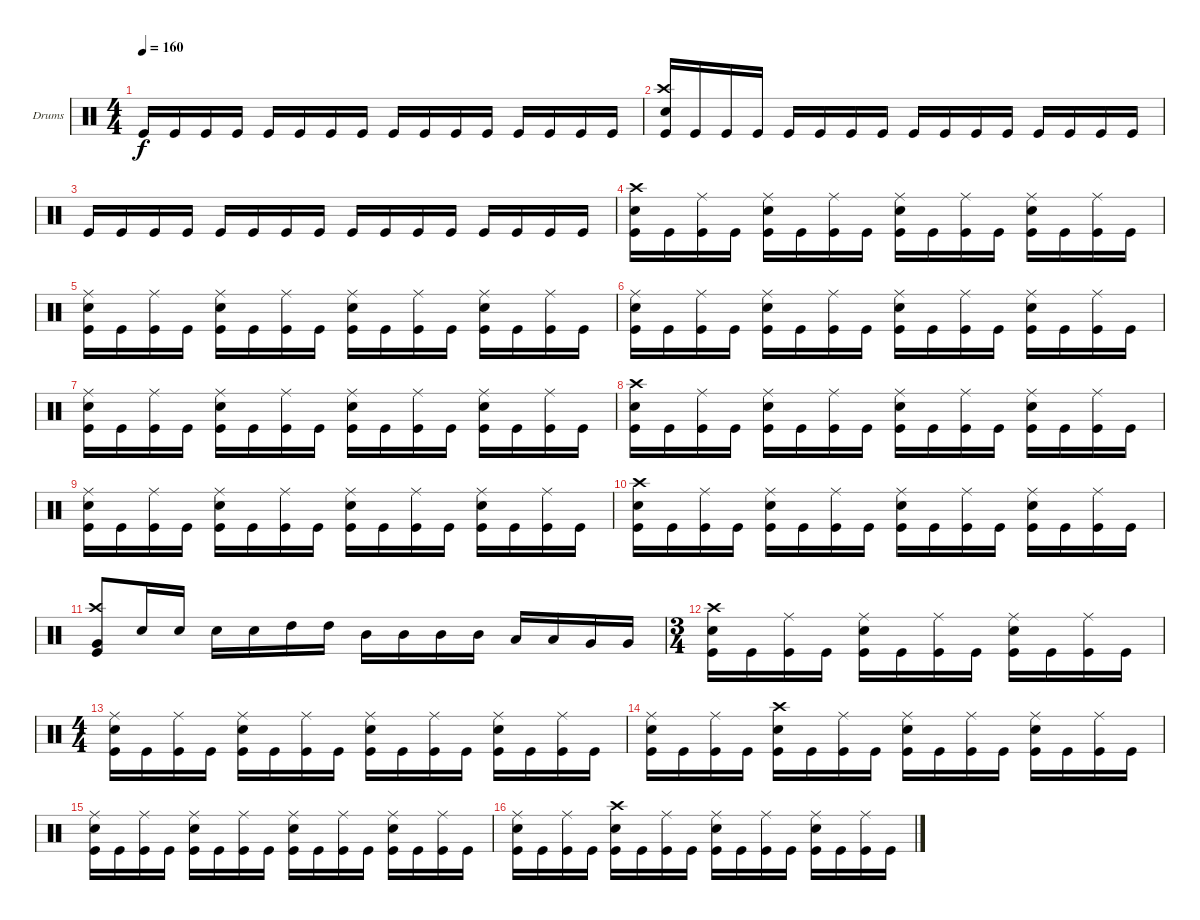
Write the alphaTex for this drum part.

\defaultSystemsLayout 4
\bracketExtendMode groupsimilarinstruments
\firstSystemTrackNameOrientation horizontal
\otherSystemsTrackNameOrientation horizontal
\track ("Drumkit" "Drums") {instrument percussion}
\staff {score}
\articulation defaults
\ts (4 4)
\tempo 160
\clef neutral
\ks c "Kick (hit)".16{dy f} "Kick (hit)".16 "Kick (hit)".16 "Kick (hit)".16 "Kick (hit)".16 "Kick (hit)".16 "Kick (hit)".16 "Kick (hit)".16 "Kick (hit)".16 "Kick (hit)".16 "Kick (hit)".16 "Kick (hit)".16 "Kick (hit)".16 "Kick (hit)".16 "Kick (hit)".16 "Kick (hit)".16
|
("Crash high (hit)" "Snare (hit) 2" "Kick (hit)").16 "Kick (hit)".16 "Kick (hit)".16 "Kick (hit)".16 "Kick (hit)".16 "Kick (hit)".16 "Kick (hit)".16 "Kick (hit)".16 "Kick (hit)".16 "Kick (hit)".16 "Kick (hit)".16 "Kick (hit)".16 "Kick (hit)".16 "Kick (hit)".16 "Kick (hit)".16 "Kick (hit)".16 |
"Kick (hit)".16 "Kick (hit)".16 "Kick (hit)".16 "Kick (hit)".16 "Kick (hit)".16 "Kick (hit)".16 "Kick (hit)".16 "Kick (hit)".16 "Kick (hit)".16 "Kick (hit)".16 "Kick (hit)".16 "Kick (hit)".16 "Kick (hit)".16 "Kick (hit)".16 "Kick (hit)".16 "Kick (hit)".16 |
("Crash high (hit)" "Snare (hit) 2" "Kick (hit)").16 "Kick (hit)".16 ("Ride (middle)" "Kick (hit)").16 "Kick (hit)".16 ("Snare (hit) 2" "Ride (middle)" "Kick (hit)").16 "Kick (hit)".16 ("Ride (middle)" "Kick (hit)").16 "Kick (hit)".16 ("Snare (hit) 2" "Ride (middle)" "Kick (hit)").16 "Kick (hit)".16 ("Ride (middle)" "Kick (hit)").16 "Kick (hit)".16 ("Snare (hit) 2" "Ride (middle)" "Kick (hit)").16 "Kick (hit)".16 ("Ride (middle)" "Kick (hit)").16 "Kick (hit)".16 |
("Snare (hit) 2" "Ride (middle)" "Kick (hit)").16 "Kick (hit)".16 ("Ride (middle)" "Kick (hit)").16 "Kick (hit)".16 ("Snare (hit) 2" "Ride (middle)" "Kick (hit)").16 "Kick (hit)".16 ("Ride (middle)" "Kick (hit)").16 "Kick (hit)".16 ("Snare (hit) 2" "Ride (middle)" "Kick (hit)").16 "Kick (hit)".16 ("Ride (middle)" "Kick (hit)").16 "Kick (hit)".16 ("Snare (hit) 2" "Ride (middle)" "Kick (hit)").16 "Kick (hit)".16 ("Ride (middle)" "Kick (hit)").16 "Kick (hit)".16 |
("Snare (hit) 2" "Ride (middle)" "Kick (hit)").16 "Kick (hit)".16 ("Ride (middle)" "Kick (hit)").16 "Kick (hit)".16 ("Snare (hit) 2" "Ride (middle)" "Kick (hit)").16 "Kick (hit)".16 ("Ride (middle)" "Kick (hit)").16 "Kick (hit)".16 ("Snare (hit) 2" "Ride (middle)" "Kick (hit)").16 "Kick (hit)".16 ("Ride (middle)" "Kick (hit)").16 "Kick (hit)".16 ("Snare (hit) 2" "Ride (middle)" "Kick (hit)").16 "Kick (hit)".16 ("Ride (middle)" "Kick (hit)").16 "Kick (hit)".16 |
("Ride (middle)" "Snare (hit) 2" "Kick (hit)").16 "Kick (hit)".16 ("Ride (middle)" "Kick (hit)").16 "Kick (hit)".16 ("Snare (hit) 2" "Ride (middle)" "Kick (hit)").16 "Kick (hit)".16 ("Ride (middle)" "Kick (hit)").16 "Kick (hit)".16 ("Snare (hit) 2" "Ride (middle)" "Kick (hit)").16 "Kick (hit)".16 ("Ride (middle)" "Kick (hit)").16 "Kick (hit)".16 ("Snare (hit) 2" "Ride (middle)" "Kick (hit)").16 "Kick (hit)".16 ("Ride (middle)" "Kick (hit)").16 "Kick (hit)".16 |
("Snare (hit) 2" "Kick (hit)" "Crash high (hit)").16 "Kick (hit)".16 ("Ride (middle)" "Kick (hit)").16 "Kick (hit)".16 ("Snare (hit) 2" "Ride (middle)" "Kick (hit)").16 "Kick (hit)".16 ("Ride (middle)" "Kick (hit)").16 "Kick (hit)".16 ("Snare (hit) 2" "Ride (middle)" "Kick (hit)").16 "Kick (hit)".16 ("Ride (middle)" "Kick (hit)").16 "Kick (hit)".16 ("Snare (hit) 2" "Ride (middle)" "Kick (hit)").16 "Kick (hit)".16 ("Ride (middle)" "Kick (hit)").16 "Kick (hit)".16 |
("Snare (hit) 2" "Kick (hit)" "Ride (middle)").16 "Kick (hit)".16 ("Ride (middle)" "Kick (hit)").16 "Kick (hit)".16 ("Snare (hit) 2" "Ride (middle)" "Kick (hit)").16 "Kick (hit)".16 ("Ride (middle)" "Kick (hit)").16 "Kick (hit)".16 ("Snare (hit) 2" "Ride (middle)" "Kick (hit)").16 "Kick (hit)".16 ("Ride (middle)" "Kick (hit)").16 "Kick (hit)".16 ("Snare (hit) 2" "Ride (middle)" "Kick (hit)").16 "Kick (hit)".16 ("Ride (middle)" "Kick (hit)").16 "Kick (hit)".16 |
("Snare (hit) 2" "Kick (hit)" "Crash high (hit)").16 "Kick (hit)".16 ("Ride (middle)" "Kick (hit)").16 "Kick (hit)".16 ("Snare (hit) 2" "Ride (middle)" "Kick (hit)").16 "Kick (hit)".16 ("Ride (middle)" "Kick (hit)").16 "Kick (hit)".16 ("Snare (hit) 2" "Ride (middle)" "Kick (hit)").16 "Kick (hit)".16 ("Ride (middle)" "Kick (hit)").16 "Kick (hit)".16 ("Snare (hit) 2" "Ride (middle)" "Kick (hit)").16 "Kick (hit)".16 ("Ride (middle)" "Kick (hit)").16 "Kick (hit)".16 |
("Very Low Tom (hit)" "Crash high (hit)" "Kick (hit)").8 "Snare (hit) 2".16 "Snare (hit) 2".16 "Snare (hit) 2".16 "Snare (hit) 2".16 "High Tom (hit)".16 "High Tom (hit)".16 "Mid Tom (hit)".16 "Mid Tom (hit)".16 "Mid Tom (hit)".16 "Mid Tom (hit)".16 "Low Tom (hit)".16 "Low Tom (hit)".16 "Very Low Tom (hit)".16 "Very Low Tom (hit)".16 |
\ts (3 4)
("Snare (hit) 2" "Kick (hit)" "Crash high (hit)").16 "Kick (hit)".16 ("Ride (middle)" "Kick (hit)").16 "Kick (hit)".16 ("Snare (hit) 2" "Ride (middle)" "Kick (hit)").16 "Kick (hit)".16 ("Ride (middle)" "Kick (hit)").16 "Kick (hit)".16 ("Snare (hit) 2" "Ride (middle)" "Kick (hit)").16 "Kick (hit)".16 ("Ride (middle)" "Kick (hit)").16 "Kick (hit)".16 |
\ts (4 4)
("Ride (middle)" "Snare (hit) 2" "Kick (hit)").16 "Kick (hit)".16 ("Ride (middle)" "Kick (hit)").16 "Kick (hit)".16 ("Snare (hit) 2" "Ride (middle)" "Kick (hit)").16 "Kick (hit)".16 ("Ride (middle)" "Kick (hit)").16 "Kick (hit)".16 ("Snare (hit) 2" "Ride (middle)" "Kick (hit)").16 "Kick (hit)".16 ("Ride (middle)" "Kick (hit)").16 "Kick (hit)".16 ("Snare (hit) 2" "Ride (middle)" "Kick (hit)").16 "Kick (hit)".16 ("Ride (middle)" "Kick (hit)").16 "Kick (hit)".16 |
("Ride (middle)" "Snare (hit) 2" "Kick (hit)").16 "Kick (hit)".16 ("Ride (middle)" "Kick (hit)").16 "Kick (hit)".16 ("Snare (hit) 2" "Crash high (hit)" "Kick (hit)").16 "Kick (hit)".16 ("Ride (middle)" "Kick (hit)").16 "Kick (hit)".16 ("Snare (hit) 2" "Ride (middle)" "Kick (hit)").16 "Kick (hit)".16 ("Ride (middle)" "Kick (hit)").16 "Kick (hit)".16 ("Snare (hit) 2" "Ride (middle)" "Kick (hit)").16 "Kick (hit)".16 ("Ride (middle)" "Kick (hit)").16 "Kick (hit)".16 |
("Ride (middle)" "Snare (hit) 2" "Kick (hit)").16 "Kick (hit)".16 ("Ride (middle)" "Kick (hit)").16 "Kick (hit)".16 ("Snare (hit) 2" "Ride (middle)" "Kick (hit)").16 "Kick (hit)".16 ("Ride (middle)" "Kick (hit)").16 "Kick (hit)".16 ("Snare (hit) 2" "Ride (middle)" "Kick (hit)").16 "Kick (hit)".16 ("Ride (middle)" "Kick (hit)").16 "Kick (hit)".16 ("Snare (hit) 2" "Ride (middle)" "Kick (hit)").16 "Kick (hit)".16 ("Ride (middle)" "Kick (hit)").16 "Kick (hit)".16 |
("Ride (middle)" "Snare (hit) 2" "Kick (hit)").16 "Kick (hit)".16 ("Ride (middle)" "Kick (hit)").16 "Kick (hit)".16 ("Snare (hit) 2" "Crash high (hit)" "Kick (hit)").16 "Kick (hit)".16 ("Ride (middle)" "Kick (hit)").16 "Kick (hit)".16 ("Snare (hit) 2" "Ride (middle)" "Kick (hit)").16 "Kick (hit)".16 ("Ride (middle)" "Kick (hit)").16 "Kick (hit)".16 ("Snare (hit) 2" "Ride (middle)" "Kick (hit)").16 "Kick (hit)".16 ("Ride (middle)" "Kick (hit)").16 "Kick (hit)".16
